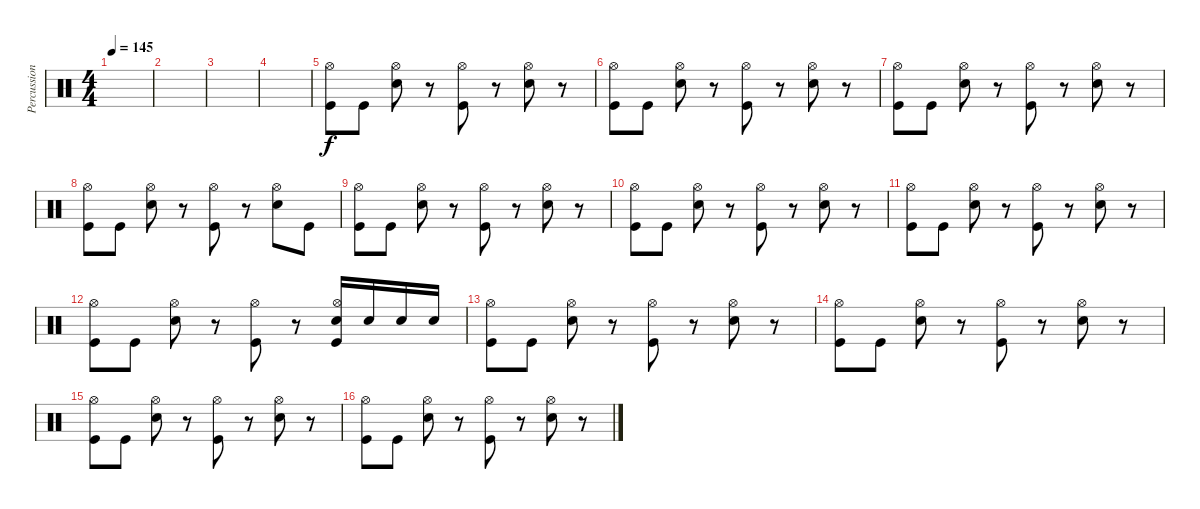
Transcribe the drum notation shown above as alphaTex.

\track ("Percussion" "Percussion") {instrument percussion}
\staff {score}
\articulation defaults
\ts (4 4)
\tempo 145
\clef neutral
\ks c
|
|
|
|
("Kick (hit)" "Hi-Hat (open)").8 "Kick (hit)".8 ("Snare (hit) 2" "Hi-Hat (open)").8 r.8 ("Kick (hit)" "Hi-Hat (open)").8 r.8 ("Snare (hit) 2" "Hi-Hat (open)").8 r.8 |
("Kick (hit)" "Hi-Hat (open)").8 "Kick (hit)".8 ("Snare (hit) 2" "Hi-Hat (open)").8 r.8 ("Kick (hit)" "Hi-Hat (open)").8 r.8 ("Snare (hit) 2" "Hi-Hat (open)").8 r.8 |
("Kick (hit)" "Hi-Hat (open)").8 "Kick (hit)".8 ("Snare (hit) 2" "Hi-Hat (open)").8 r.8 ("Kick (hit)" "Hi-Hat (open)").8 r.8 ("Snare (hit) 2" "Hi-Hat (open)").8 r.8 |
("Kick (hit)" "Hi-Hat (open)").8 "Kick (hit)".8 ("Snare (hit) 2" "Hi-Hat (open)").8 r.8 ("Kick (hit)" "Hi-Hat (open)").8 r.8 ("Snare (hit) 2" "Hi-Hat (open)").8 "Kick (hit)".8 |
("Kick (hit)" "Hi-Hat (open)").8 "Kick (hit)".8 ("Snare (hit) 2" "Hi-Hat (open)").8 r.8 ("Kick (hit)" "Hi-Hat (open)").8 r.8 ("Snare (hit) 2" "Hi-Hat (open)").8 r.8 |
("Kick (hit)" "Hi-Hat (open)").8 "Kick (hit)".8 ("Snare (hit) 2" "Hi-Hat (open)").8 r.8 ("Kick (hit)" "Hi-Hat (open)").8 r.8 ("Snare (hit) 2" "Hi-Hat (open)").8 r.8 |
("Kick (hit)" "Hi-Hat (open)").8 "Kick (hit)".8 ("Snare (hit) 2" "Hi-Hat (open)").8 r.8 ("Kick (hit)" "Hi-Hat (open)").8 r.8 ("Snare (hit) 2" "Hi-Hat (open)").8 r.8 |
("Kick (hit)" "Hi-Hat (open)").8 "Kick (hit)".8 ("Snare (hit) 2" "Hi-Hat (open)").8 r.8 ("Kick (hit)" "Hi-Hat (open)").8 r.8 ("Snare (hit) 2" "Kick (hit)" "Hi-Hat (open)").16 "Snare (hit) 2".16 "Snare (hit) 2".16 "Snare (hit) 2".16 |
("Kick (hit)" "Hi-Hat (open)").8 "Kick (hit)".8 ("Snare (hit) 2" "Hi-Hat (open)").8 r.8 ("Kick (hit)" "Hi-Hat (open)").8 r.8 ("Snare (hit) 2" "Hi-Hat (open)").8 r.8 |
("Kick (hit)" "Hi-Hat (open)").8 "Kick (hit)".8 ("Snare (hit) 2" "Hi-Hat (open)").8 r.8 ("Kick (hit)" "Hi-Hat (open)").8 r.8 ("Snare (hit) 2" "Hi-Hat (open)").8 r.8 |
("Kick (hit)" "Hi-Hat (open)").8 "Kick (hit)".8 ("Snare (hit) 2" "Hi-Hat (open)").8 r.8 ("Kick (hit)" "Hi-Hat (open)").8 r.8 ("Snare (hit) 2" "Hi-Hat (open)").8 r.8 |
("Kick (hit)" "Hi-Hat (open)").8 "Kick (hit)".8 ("Snare (hit) 2" "Hi-Hat (open)").8 r.8 ("Kick (hit)" "Hi-Hat (open)").8 r.8 ("Snare (hit) 2" "Hi-Hat (open)").8 r.8
